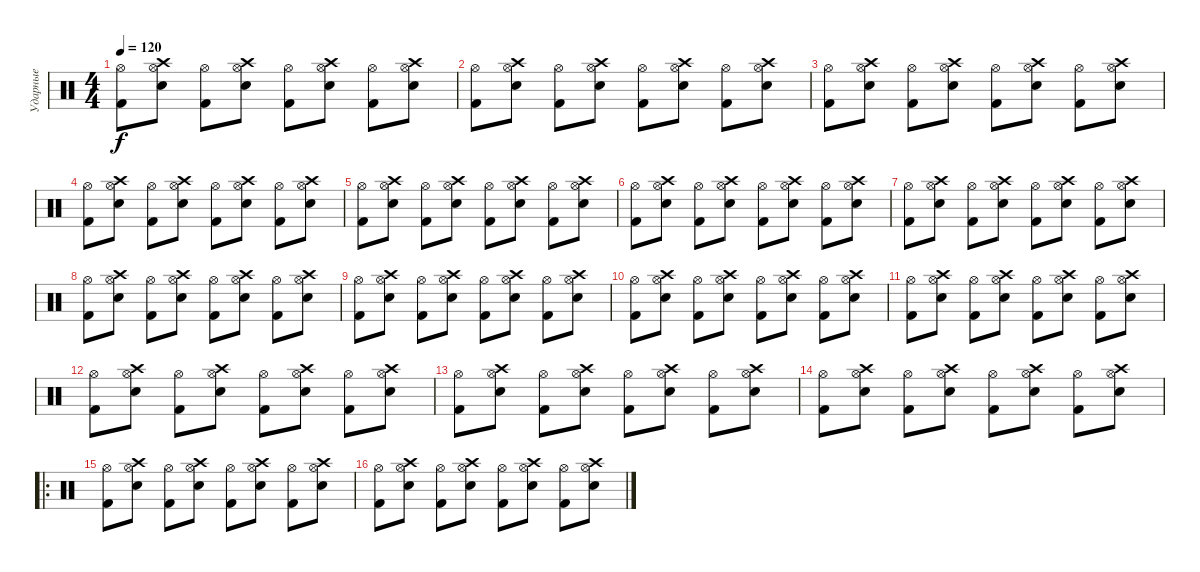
\track ("Ударные" "Ударные") {instrument percussion}
\staff {score}
\articulation defaults
\ts (4 4)
\tempo 120
\clef neutral
\ks c
("Hi-Hat (open)" "Kick (hit) 2").8{dy f} ("Hi-Hat (open)" "Crash high (hit)" "Snare (hit) 2").8 ("Hi-Hat (open)" "Kick (hit) 2").8 ("Hi-Hat (open)" "Crash high (hit)" "Snare (hit) 2").8 ("Hi-Hat (open)" "Kick (hit) 2").8 ("Hi-Hat (open)" "Crash high (hit)" "Snare (hit) 2").8 ("Hi-Hat (open)" "Kick (hit) 2").8 ("Hi-Hat (open)" "Crash high (hit)" "Snare (hit) 2").8 |
("Hi-Hat (open)" "Kick (hit) 2").8 ("Hi-Hat (open)" "Crash high (hit)" "Snare (hit) 2").8 ("Hi-Hat (open)" "Kick (hit) 2").8 ("Hi-Hat (open)" "Crash high (hit)" "Snare (hit) 2").8 ("Hi-Hat (open)" "Kick (hit) 2").8 ("Hi-Hat (open)" "Crash high (hit)" "Snare (hit) 2").8 ("Hi-Hat (open)" "Kick (hit) 2").8 ("Hi-Hat (open)" "Crash high (hit)" "Snare (hit) 2").8 |
("Hi-Hat (open)" "Kick (hit) 2").8 ("Hi-Hat (open)" "Crash high (hit)" "Snare (hit) 2").8 ("Hi-Hat (open)" "Kick (hit) 2").8 ("Hi-Hat (open)" "Crash high (hit)" "Snare (hit) 2").8 ("Hi-Hat (open)" "Kick (hit) 2").8 ("Hi-Hat (open)" "Crash high (hit)" "Snare (hit) 2").8 ("Hi-Hat (open)" "Kick (hit) 2").8 ("Hi-Hat (open)" "Crash high (hit)" "Snare (hit) 2").8 |
("Hi-Hat (open)" "Kick (hit) 2").8 ("Hi-Hat (open)" "Crash high (hit)" "Snare (hit) 2").8 ("Hi-Hat (open)" "Kick (hit) 2").8 ("Hi-Hat (open)" "Crash high (hit)" "Snare (hit) 2").8 ("Hi-Hat (open)" "Kick (hit) 2").8 ("Hi-Hat (open)" "Crash high (hit)" "Snare (hit) 2").8 ("Hi-Hat (open)" "Kick (hit) 2").8 ("Hi-Hat (open)" "Crash high (hit)" "Snare (hit) 2").8 |
("Hi-Hat (open)" "Kick (hit) 2").8 ("Hi-Hat (open)" "Crash high (hit)" "Snare (hit) 2").8 ("Hi-Hat (open)" "Kick (hit) 2").8 ("Hi-Hat (open)" "Crash high (hit)" "Snare (hit) 2").8 ("Hi-Hat (open)" "Kick (hit) 2").8 ("Hi-Hat (open)" "Crash high (hit)" "Snare (hit) 2").8 ("Hi-Hat (open)" "Kick (hit) 2").8 ("Hi-Hat (open)" "Crash high (hit)" "Snare (hit) 2").8 |
("Hi-Hat (open)" "Kick (hit) 2").8 ("Hi-Hat (open)" "Crash high (hit)" "Snare (hit) 2").8 ("Hi-Hat (open)" "Kick (hit) 2").8 ("Hi-Hat (open)" "Crash high (hit)" "Snare (hit) 2").8 ("Hi-Hat (open)" "Kick (hit) 2").8 ("Hi-Hat (open)" "Crash high (hit)" "Snare (hit) 2").8 ("Hi-Hat (open)" "Kick (hit) 2").8 ("Hi-Hat (open)" "Crash high (hit)" "Snare (hit) 2").8 |
("Hi-Hat (open)" "Kick (hit) 2").8 ("Hi-Hat (open)" "Crash high (hit)" "Snare (hit) 2").8 ("Hi-Hat (open)" "Kick (hit) 2").8 ("Hi-Hat (open)" "Crash high (hit)" "Snare (hit) 2").8 ("Hi-Hat (open)" "Kick (hit) 2").8 ("Hi-Hat (open)" "Crash high (hit)" "Snare (hit) 2").8 ("Hi-Hat (open)" "Kick (hit) 2").8 ("Hi-Hat (open)" "Crash high (hit)" "Snare (hit) 2").8 |
("Hi-Hat (open)" "Kick (hit) 2").8 ("Hi-Hat (open)" "Crash high (hit)" "Snare (hit) 2").8 ("Hi-Hat (open)" "Kick (hit) 2").8 ("Hi-Hat (open)" "Crash high (hit)" "Snare (hit) 2").8 ("Hi-Hat (open)" "Kick (hit) 2").8 ("Hi-Hat (open)" "Crash high (hit)" "Snare (hit) 2").8 ("Hi-Hat (open)" "Kick (hit) 2").8 ("Hi-Hat (open)" "Crash high (hit)" "Snare (hit) 2").8 |
("Hi-Hat (open)" "Kick (hit) 2").8 ("Hi-Hat (open)" "Crash high (hit)" "Snare (hit) 2").8 ("Hi-Hat (open)" "Kick (hit) 2").8 ("Hi-Hat (open)" "Crash high (hit)" "Snare (hit) 2").8 ("Hi-Hat (open)" "Kick (hit) 2").8 ("Hi-Hat (open)" "Crash high (hit)" "Snare (hit) 2").8 ("Hi-Hat (open)" "Kick (hit) 2").8 ("Hi-Hat (open)" "Crash high (hit)" "Snare (hit) 2").8 |
("Hi-Hat (open)" "Kick (hit) 2").8 ("Hi-Hat (open)" "Crash high (hit)" "Snare (hit) 2").8 ("Hi-Hat (open)" "Kick (hit) 2").8 ("Hi-Hat (open)" "Crash high (hit)" "Snare (hit) 2").8 ("Hi-Hat (open)" "Kick (hit) 2").8 ("Hi-Hat (open)" "Crash high (hit)" "Snare (hit) 2").8 ("Hi-Hat (open)" "Kick (hit) 2").8 ("Hi-Hat (open)" "Crash high (hit)" "Snare (hit) 2").8 |
("Hi-Hat (open)" "Kick (hit) 2").8 ("Hi-Hat (open)" "Crash high (hit)" "Snare (hit) 2").8 ("Hi-Hat (open)" "Kick (hit) 2").8 ("Hi-Hat (open)" "Crash high (hit)" "Snare (hit) 2").8 ("Hi-Hat (open)" "Kick (hit) 2").8 ("Hi-Hat (open)" "Crash high (hit)" "Snare (hit) 2").8 ("Hi-Hat (open)" "Kick (hit) 2").8 ("Hi-Hat (open)" "Crash high (hit)" "Snare (hit) 2").8 |
("Hi-Hat (open)" "Kick (hit) 2").8 ("Hi-Hat (open)" "Crash high (hit)" "Snare (hit) 2").8 ("Hi-Hat (open)" "Kick (hit) 2").8 ("Hi-Hat (open)" "Crash high (hit)" "Snare (hit) 2").8 ("Hi-Hat (open)" "Kick (hit) 2").8 ("Hi-Hat (open)" "Crash high (hit)" "Snare (hit) 2").8 ("Hi-Hat (open)" "Kick (hit) 2").8 ("Hi-Hat (open)" "Crash high (hit)" "Snare (hit) 2").8 |
("Hi-Hat (open)" "Kick (hit) 2").8 ("Hi-Hat (open)" "Crash high (hit)" "Snare (hit) 2").8 ("Hi-Hat (open)" "Kick (hit) 2").8 ("Hi-Hat (open)" "Crash high (hit)" "Snare (hit) 2").8 ("Hi-Hat (open)" "Kick (hit) 2").8 ("Hi-Hat (open)" "Crash high (hit)" "Snare (hit) 2").8 ("Hi-Hat (open)" "Kick (hit) 2").8 ("Hi-Hat (open)" "Crash high (hit)" "Snare (hit) 2").8 |
("Hi-Hat (open)" "Kick (hit) 2").8 ("Hi-Hat (open)" "Crash high (hit)" "Snare (hit) 2").8 ("Hi-Hat (open)" "Kick (hit) 2").8 ("Hi-Hat (open)" "Crash high (hit)" "Snare (hit) 2").8 ("Hi-Hat (open)" "Kick (hit) 2").8 ("Hi-Hat (open)" "Crash high (hit)" "Snare (hit) 2").8 ("Hi-Hat (open)" "Kick (hit) 2").8 ("Hi-Hat (open)" "Crash high (hit)" "Snare (hit) 2").8 |
\ro
("Hi-Hat (open)" "Kick (hit) 2").8 ("Hi-Hat (open)" "Crash high (hit)" "Snare (hit) 2").8 ("Hi-Hat (open)" "Kick (hit) 2").8 ("Hi-Hat (open)" "Crash high (hit)" "Snare (hit) 2").8 ("Hi-Hat (open)" "Kick (hit) 2").8 ("Hi-Hat (open)" "Crash high (hit)" "Snare (hit) 2").8 ("Hi-Hat (open)" "Kick (hit) 2").8 ("Hi-Hat (open)" "Crash high (hit)" "Snare (hit) 2").8 |
("Hi-Hat (open)" "Kick (hit) 2").8 ("Hi-Hat (open)" "Crash high (hit)" "Snare (hit) 2").8 ("Hi-Hat (open)" "Kick (hit) 2").8 ("Hi-Hat (open)" "Crash high (hit)" "Snare (hit) 2").8 ("Hi-Hat (open)" "Kick (hit) 2").8 ("Hi-Hat (open)" "Crash high (hit)" "Snare (hit) 2").8 ("Hi-Hat (open)" "Kick (hit) 2").8 ("Hi-Hat (open)" "Crash high (hit)" "Snare (hit) 2").8
